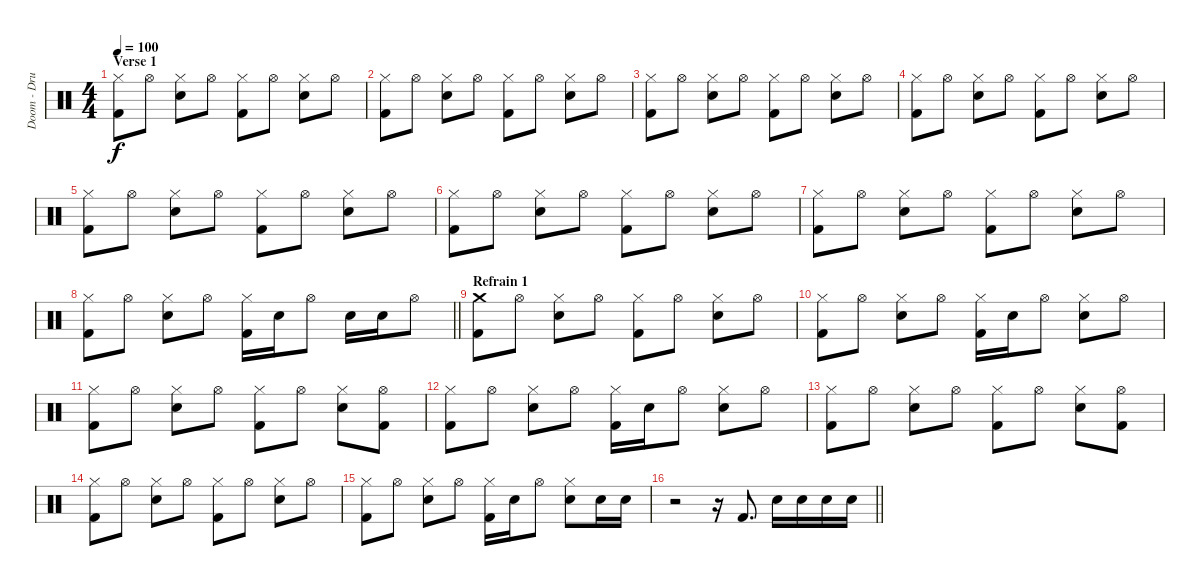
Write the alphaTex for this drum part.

\track ("Doom - Drums" "Doom - Dru") {instrument percussion}
\staff {score}
\articulation defaults
\ts (4 4)
\section ("" "Verse 1")
\tempo 100
\clef neutral
\ks c
("Hi-Hat (closed)" "Kick (hit) 2").8{dy f} "Hi-Hat (open)".8 ("Hi-Hat (closed)" "Snare (hit) 2").8 "Hi-Hat (open)".8 ("Hi-Hat (closed)" "Kick (hit) 2").8 "Hi-Hat (open)".8 ("Hi-Hat (closed)" "Snare (hit) 2").8 "Hi-Hat (open)".8 |
("Hi-Hat (closed)" "Kick (hit) 2").8 "Hi-Hat (open)".8 ("Hi-Hat (closed)" "Snare (hit) 2").8 "Hi-Hat (open)".8 ("Hi-Hat (closed)" "Kick (hit) 2").8 "Hi-Hat (open)".8 ("Hi-Hat (closed)" "Snare (hit) 2").8 "Hi-Hat (open)".8 |
("Hi-Hat (closed)" "Kick (hit) 2").8 "Hi-Hat (open)".8 ("Hi-Hat (closed)" "Snare (hit) 2").8 "Hi-Hat (open)".8 ("Hi-Hat (closed)" "Kick (hit) 2").8 "Hi-Hat (open)".8 ("Hi-Hat (closed)" "Snare (hit) 2").8 "Hi-Hat (open)".8 |
("Hi-Hat (closed)" "Kick (hit) 2").8 "Hi-Hat (open)".8 ("Hi-Hat (closed)" "Snare (hit) 2").8 "Hi-Hat (open)".8 ("Hi-Hat (closed)" "Kick (hit) 2").8 "Hi-Hat (open)".8 ("Hi-Hat (closed)" "Snare (hit) 2").8 "Hi-Hat (open)".8 |
("Hi-Hat (closed)" "Kick (hit) 2").8 "Hi-Hat (open)".8 ("Hi-Hat (closed)" "Snare (hit) 2").8 "Hi-Hat (open)".8 ("Hi-Hat (closed)" "Kick (hit) 2").8 "Hi-Hat (open)".8 ("Hi-Hat (closed)" "Snare (hit) 2").8 "Hi-Hat (open)".8 |
("Hi-Hat (closed)" "Kick (hit) 2").8 "Hi-Hat (open)".8 ("Hi-Hat (closed)" "Snare (hit) 2").8 "Hi-Hat (open)".8 ("Hi-Hat (closed)" "Kick (hit) 2").8 "Hi-Hat (open)".8 ("Hi-Hat (closed)" "Snare (hit) 2").8 "Hi-Hat (open)".8 |
("Hi-Hat (closed)" "Kick (hit) 2").8 "Hi-Hat (open)".8 ("Hi-Hat (closed)" "Snare (hit) 2").8 "Hi-Hat (open)".8 ("Hi-Hat (closed)" "Kick (hit) 2").8 "Hi-Hat (open)".8 ("Hi-Hat (closed)" "Snare (hit) 2").8 "Hi-Hat (open)".8 |
\barLineRight lightlight
("Hi-Hat (closed)" "Kick (hit) 2").8 "Hi-Hat (open)".8 ("Hi-Hat (closed)" "Snare (hit) 2").8 "Hi-Hat (open)".8 ("Hi-Hat (closed)" "Kick (hit) 2").16 "Snare (hit) 2".16 "Hi-Hat (open)".8 "Snare (hit) 2".16 "Snare (hit) 2".16 "Hi-Hat (open)".8 |
\section ("" "Refrain 1")
("Crash medium (hit)" "Kick (hit) 2").8 "Hi-Hat (open)".8 ("Hi-Hat (closed)" "Snare (hit) 2").8 "Hi-Hat (open)".8 ("Hi-Hat (closed)" "Kick (hit) 2").8 "Hi-Hat (open)".8 ("Hi-Hat (closed)" "Snare (hit) 2").8 "Hi-Hat (open)".8 |
("Hi-Hat (closed)" "Kick (hit) 2").8 "Hi-Hat (open)".8 ("Hi-Hat (closed)" "Snare (hit) 2").8 "Hi-Hat (open)".8 ("Hi-Hat (closed)" "Kick (hit) 2").16 "Snare (hit) 2".16 "Hi-Hat (open)".8 ("Hi-Hat (closed)" "Snare (hit) 2").8 "Hi-Hat (open)".8 |
("Hi-Hat (closed)" "Kick (hit) 2").8 "Hi-Hat (open)".8 ("Hi-Hat (closed)" "Snare (hit) 2").8 "Hi-Hat (open)".8 ("Hi-Hat (closed)" "Kick (hit) 2").8 "Hi-Hat (open)".8 ("Hi-Hat (closed)" "Snare (hit) 2").8 ("Hi-Hat (open)" "Kick (hit) 2").8 |
("Hi-Hat (closed)" "Kick (hit) 2").8 "Hi-Hat (open)".8 ("Hi-Hat (closed)" "Snare (hit) 2").8 "Hi-Hat (open)".8 ("Hi-Hat (closed)" "Kick (hit) 2").16 "Snare (hit) 2".16 "Hi-Hat (open)".8 ("Hi-Hat (closed)" "Snare (hit) 2").8 "Hi-Hat (open)".8 |
("Hi-Hat (closed)" "Kick (hit) 2").8 "Hi-Hat (open)".8 ("Hi-Hat (closed)" "Snare (hit) 2").8 "Hi-Hat (open)".8 ("Hi-Hat (closed)" "Kick (hit) 2").8 "Hi-Hat (open)".8 ("Hi-Hat (closed)" "Snare (hit) 2").8 ("Hi-Hat (open)" "Kick (hit) 2").8 |
("Hi-Hat (closed)" "Kick (hit) 2").8 "Hi-Hat (open)".8 ("Hi-Hat (closed)" "Snare (hit) 2").8 "Hi-Hat (open)".8 ("Hi-Hat (closed)" "Kick (hit) 2").8 "Hi-Hat (open)".8 ("Hi-Hat (closed)" "Snare (hit) 2").8 "Hi-Hat (open)".8 |
("Hi-Hat (closed)" "Kick (hit) 2").8 "Hi-Hat (open)".8 ("Hi-Hat (closed)" "Snare (hit) 2").8 "Hi-Hat (open)".8 ("Hi-Hat (closed)" "Kick (hit) 2").16 "Snare (hit) 2".16 "Hi-Hat (open)".8 ("Hi-Hat (closed)" "Snare (hit) 2").8 "Snare (hit) 2".16 "Snare (hit) 2".16 |
\barLineRight lightlight
r.2 r.16 "Kick (hit) 2".8{d} "Snare (hit) 2".16 "Snare (hit) 2".16 "Snare (hit) 2".16 "Snare (hit) 2".16
